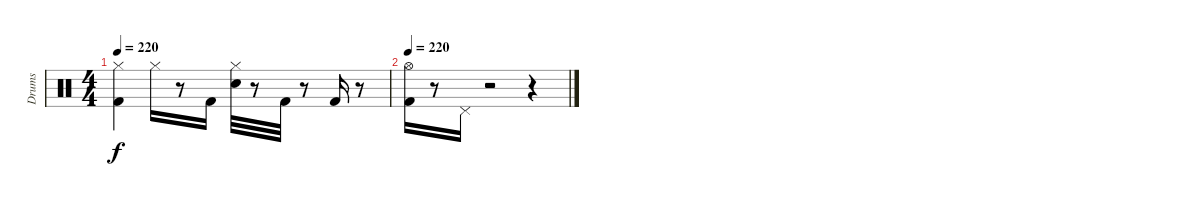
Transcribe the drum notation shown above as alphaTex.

\track ("Drums" "Drums") {instrument percussion}
\staff {score}
\articulation defaults
\ts (4 4)
\tempo 220
\clef neutral
\ks c
("Kick (hit) 2" "Hi-Hat (closed)").4{dy f} "Hi-Hat (closed)".16 r.8 "Kick (hit) 2".16 ("Snare (hit) 2" "Hi-Hat (closed)").32 r.8 "Kick (hit) 2".32 r.8 "Kick (hit) 2".16 r.8 |
\tempo 220
("Kick (hit) 2" "Hi-Hat (open)").16 r.8 "Pedal Hi-Hat (hit)".16 r.2 r.4
